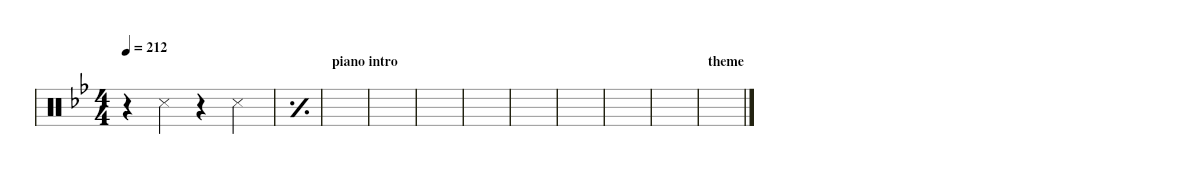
\defaultSystemsLayout 4
\hideDynamics
\bracketExtendMode groupsimilarinstruments
\singleTrackTrackNamePolicy hidden
\multiTrackTrackNamePolicy allsystems
\firstSystemTrackNameMode fullname
\otherSystemsTrackNameMode fullname
\firstSystemTrackNameOrientation horizontal
\otherSystemsTrackNameOrientation horizontal
\defaultBarNumberDisplay Hide
\track ("metronome 2+4" "Drums") {instrument percussion}
\staff {score}
\articulation defaults
\ts (4 4)
\tempo 212
\clef neutral
\ks bb
r.4{dy mf} "Snare (side stick) 3".4 r.4 "Snare (side stick) 3".4 |
\simile simple
|
\section ("" "piano intro")
|
|
|
|
|
|
|
|
\section ("" "theme")
